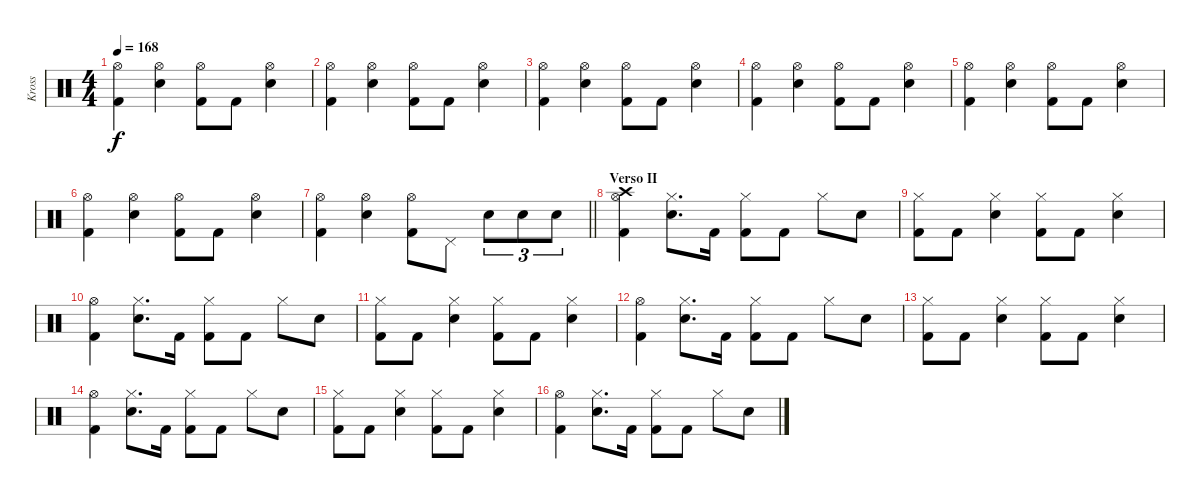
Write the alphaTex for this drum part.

\track ("Kross" "Kross") {instrument percussion}
\staff
\articulation defaults
\ts (4 4)
\tempo 168
\clef neutral
\ks c
("Hi-Hat (open)" "Kick (hit) 2").4{dy f} ("Hi-Hat (open)" "Electric Snare (hit)").4 ("Hi-Hat (open)" "Kick (hit) 2").8 "Kick (hit) 2".8 ("Hi-Hat (open)" "Electric Snare (hit)").4 |
("Hi-Hat (open)" "Kick (hit) 2").4 ("Hi-Hat (open)" "Electric Snare (hit)").4 ("Hi-Hat (open)" "Kick (hit) 2").8 "Kick (hit) 2".8 ("Hi-Hat (open)" "Electric Snare (hit)").4 |
("Hi-Hat (open)" "Kick (hit) 2").4 ("Hi-Hat (open)" "Electric Snare (hit)").4 ("Hi-Hat (open)" "Kick (hit) 2").8 "Kick (hit) 2".8 ("Hi-Hat (open)" "Electric Snare (hit)").4 |
("Hi-Hat (open)" "Kick (hit) 2").4 ("Hi-Hat (open)" "Electric Snare (hit)").4 ("Hi-Hat (open)" "Kick (hit) 2").8 "Kick (hit) 2".8 ("Hi-Hat (open)" "Electric Snare (hit)").4 |
("Hi-Hat (open)" "Kick (hit) 2").4 ("Hi-Hat (open)" "Electric Snare (hit)").4 ("Hi-Hat (open)" "Kick (hit) 2").8 "Kick (hit) 2".8 ("Hi-Hat (open)" "Electric Snare (hit)").4 |
("Hi-Hat (open)" "Kick (hit) 2").4 ("Hi-Hat (open)" "Electric Snare (hit)").4 ("Hi-Hat (open)" "Kick (hit) 2").8 "Kick (hit) 2".8 ("Hi-Hat (open)" "Electric Snare (hit)").4 |
\barLineRight lightlight
("Hi-Hat (open)" "Kick (hit) 2").4 ("Hi-Hat (open)" "Electric Snare (hit)").4 ("Hi-Hat (open)" "Kick (hit) 2").8 "Pedal Hi-Hat (hit)".8 "Electric Snare (hit)".8{tu (3 2)} "Electric Snare (hit)".8{tu (3 2)} "Electric Snare (hit)".8{tu (3 2)} |
\section ("" "Verso II")
("Crash high (hit)" "Hi-Hat (open)" "Kick (hit) 2").4 ("Hi-Hat (closed)" "Electric Snare (hit)").8{d} "Kick (hit) 2".16 ("Hi-Hat (closed)" "Kick (hit) 2").8 "Kick (hit) 2".8 "Hi-Hat (closed)".8 "Electric Snare (hit)".8 |
("Hi-Hat (closed)" "Kick (hit) 2").8 "Kick (hit) 2".8 ("Hi-Hat (closed)" "Electric Snare (hit)").4 ("Hi-Hat (closed)" "Kick (hit) 2").8 "Kick (hit) 2".8 ("Hi-Hat (closed)" "Electric Snare (hit)").4 |
("Hi-Hat (open)" "Kick (hit) 2").4 ("Hi-Hat (closed)" "Electric Snare (hit)").8{d} "Kick (hit) 2".16 ("Hi-Hat (closed)" "Kick (hit) 2").8 "Kick (hit) 2".8 "Hi-Hat (closed)".8 "Electric Snare (hit)".8 |
("Hi-Hat (closed)" "Kick (hit) 2").8 "Kick (hit) 2".8 ("Hi-Hat (closed)" "Electric Snare (hit)").4 ("Hi-Hat (closed)" "Kick (hit) 2").8 "Kick (hit) 2".8 ("Hi-Hat (closed)" "Electric Snare (hit)").4 |
("Hi-Hat (open)" "Kick (hit) 2").4 ("Hi-Hat (closed)" "Electric Snare (hit)").8{d} "Kick (hit) 2".16 ("Hi-Hat (closed)" "Kick (hit) 2").8 "Kick (hit) 2".8 "Hi-Hat (closed)".8 "Electric Snare (hit)".8 |
("Hi-Hat (closed)" "Kick (hit) 2").8 "Kick (hit) 2".8 ("Hi-Hat (closed)" "Electric Snare (hit)").4 ("Hi-Hat (closed)" "Kick (hit) 2").8 "Kick (hit) 2".8 ("Hi-Hat (closed)" "Electric Snare (hit)").4 |
("Hi-Hat (open)" "Kick (hit) 2").4 ("Hi-Hat (closed)" "Electric Snare (hit)").8{d} "Kick (hit) 2".16 ("Hi-Hat (closed)" "Kick (hit) 2").8 "Kick (hit) 2".8 "Hi-Hat (closed)".8 "Electric Snare (hit)".8 |
("Hi-Hat (closed)" "Kick (hit) 2").8 "Kick (hit) 2".8 ("Hi-Hat (closed)" "Electric Snare (hit)").4 ("Hi-Hat (closed)" "Kick (hit) 2").8 "Kick (hit) 2".8 ("Hi-Hat (closed)" "Electric Snare (hit)").4 |
("Hi-Hat (open)" "Kick (hit) 2").4 ("Hi-Hat (closed)" "Electric Snare (hit)").8{d} "Kick (hit) 2".16 ("Hi-Hat (closed)" "Kick (hit) 2").8 "Kick (hit) 2".8 "Hi-Hat (closed)".8 "Electric Snare (hit)".8
